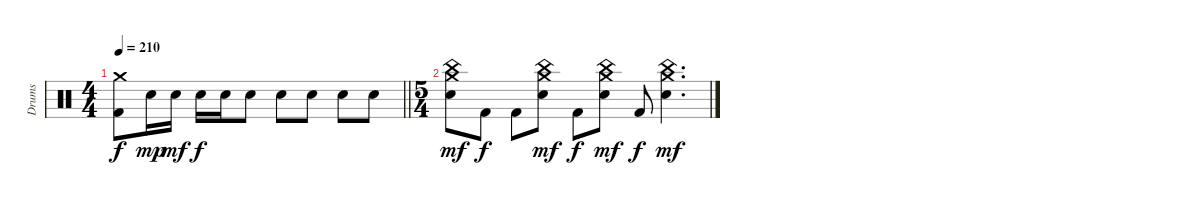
\track ("Drums" "Drums") {instrument percussion}
\staff {score}
\articulation defaults
\ts (4 4)
\tempo 210
\clef neutral
\barLineRight lightlight
\ks c
("Crash medium (hit)" "Kick (hit) 2").8{dy f} "Electric Snare (hit)".16{dy mp} "Electric Snare (hit)".16{dy mf} "Electric Snare (hit)".16{dy f} "Electric Snare (hit)".16 "Electric Snare (hit)".8 "Electric Snare (hit)".8 "Electric Snare (hit)".8 "Electric Snare (hit)".8 "Electric Snare (hit)".8 |
\ts (5 4)
("China (hit)" "Crash medium (hit)" "Electric Snare (hit)").8{dy mf} "Kick (hit) 2".8{dy f} "Kick (hit) 2".8 ("China (hit)" "Crash medium (hit)" "Electric Snare (hit)").8{dy mf} "Kick (hit) 2".8{dy f} ("China (hit)" "Crash medium (hit)" "Electric Snare (hit)").8{dy mf} "Kick (hit) 2".8{dy f} ("China (hit)" "Crash medium (hit)" "Electric Snare (hit)").4{d dy mf}
